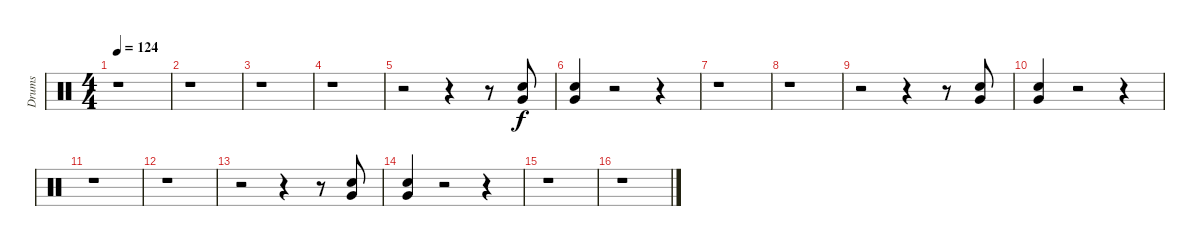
\track ("Drums" "Drums") {instrument percussion}
\staff {score}
\articulation defaults
\ts (4 4)
\tempo 124
\clef neutral
\ks c
r.1{dy f} |
r.1 |
r.1 |
r.1 |
r.2 r.4 r.8 ("Snare (hit) 2" "Very Low Tom (hit)").8 |
("Snare (hit) 2" "Very Low Tom (hit)").4 r.2 r.4 |
r.1 |
r.1 |
r.2 r.4 r.8 ("Snare (hit) 2" "Very Low Tom (hit)").8 |
("Snare (hit) 2" "Very Low Tom (hit)").4 r.2 r.4 |
r.1 |
r.1 |
r.2 r.4 r.8 ("Snare (hit) 2" "Very Low Tom (hit)").8 |
("Snare (hit) 2" "Very Low Tom (hit)").4 r.2 r.4 |
r.1 |
r.1
